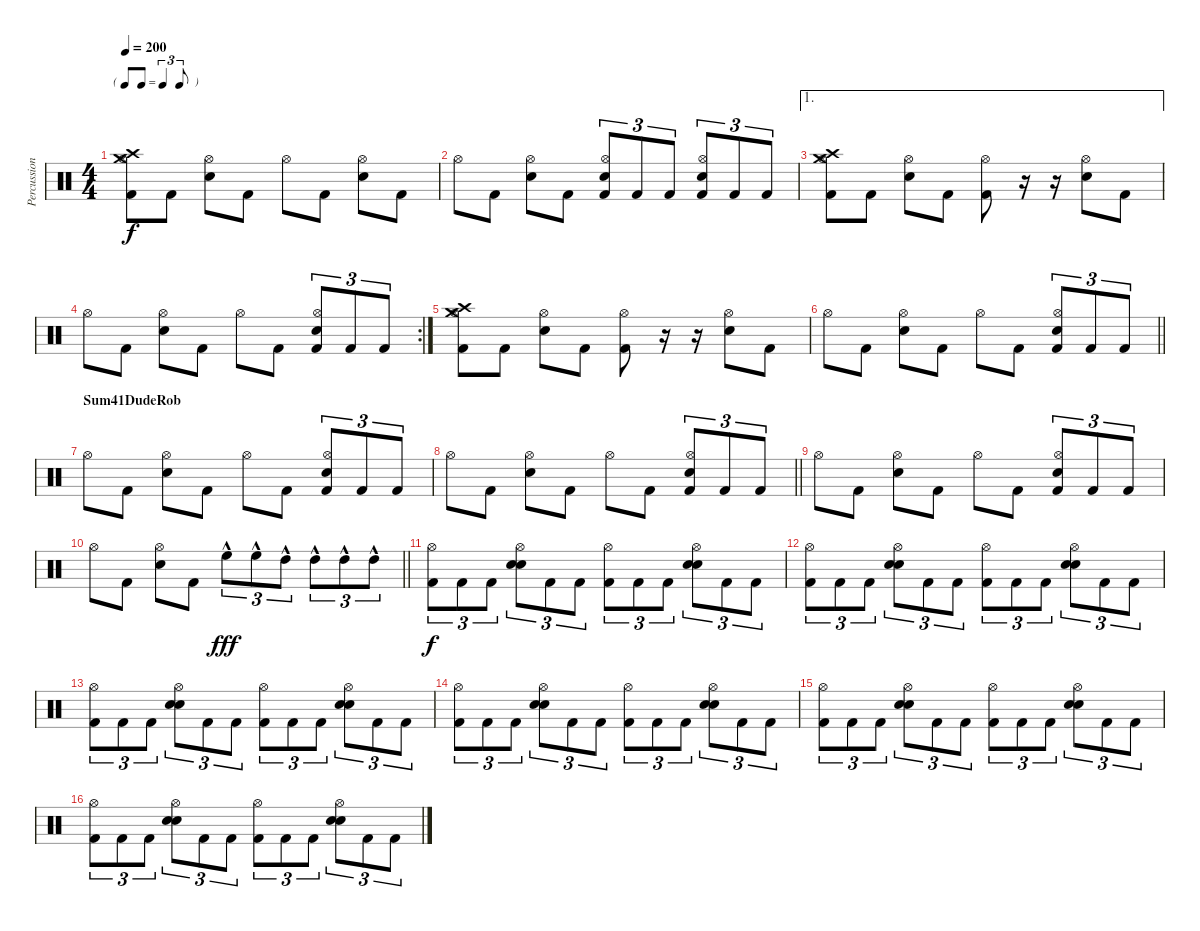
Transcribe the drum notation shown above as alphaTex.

\track ("Percussion" "Percussion") {instrument percussion}
\staff {score}
\articulation defaults
\ts (4 4)
\tf triplet8th
\tempo 200
\clef neutral
\ks c
("Kick (hit) 2" "Hi-Hat (open)" "Crash high (hit)" "Crash medium (hit)").8{dy f} "Kick (hit) 2".8 ("Electric Snare (hit)" "Hi-Hat (open)").8 "Kick (hit) 2".8 "Hi-Hat (open)".8 "Kick (hit) 2".8 ("Electric Snare (hit)" "Hi-Hat (open)").8 "Kick (hit) 2".8 |
"Hi-Hat (open)".8 "Kick (hit) 2".8 ("Electric Snare (hit)" "Hi-Hat (open)").8 "Kick (hit) 2".8 ("Kick (hit) 2" "Electric Snare (hit)" "Hi-Hat (open)").8{tu (3 2)} "Kick (hit) 2".8{tu (3 2)} "Kick (hit) 2".8{tu (3 2)} ("Kick (hit) 2" "Electric Snare (hit)" "Hi-Hat (open)").8{tu (3 2)} "Kick (hit) 2".8{tu (3 2)} "Kick (hit) 2".8{tu (3 2)} |
\ae 1
("Kick (hit) 2" "Crash high (hit)" "Hi-Hat (open)" "Crash medium (hit)").8 "Kick (hit) 2".8 ("Electric Snare (hit)" "Hi-Hat (open)").8 "Kick (hit) 2".8 ("Kick (hit) 2" "Hi-Hat (open)").8 r.16 r.16 ("Electric Snare (hit)" "Hi-Hat (open)").8 "Kick (hit) 2".8 |
\rc 2 "Hi-Hat (open)".8 "Kick (hit) 2".8
("Electric Snare (hit)" "Hi-Hat (open)").8 "Kick (hit) 2".8 "Hi-Hat (open)".8 "Kick (hit) 2".8 ("Kick (hit) 2" "Electric Snare (hit)" "Hi-Hat (open)").8{tu (3 2)} "Kick (hit) 2".8{tu (3 2)} "Kick (hit) 2".8{tu (3 2)} |
("Kick (hit) 2" "Crash high (hit)" "Hi-Hat (open)" "Crash medium (hit)").8 "Kick (hit) 2".8 ("Electric Snare (hit)" "Hi-Hat (open)").8 "Kick (hit) 2".8 ("Kick (hit) 2" "Hi-Hat (open)").8 r.16 r.16 ("Electric Snare (hit)" "Hi-Hat (open)").8 "Kick (hit) 2".8 |
\barLineRight lightlight "Hi-Hat (open)".8 "Kick (hit) 2".8
("Electric Snare (hit)" "Hi-Hat (open)").8 "Kick (hit) 2".8 "Hi-Hat (open)".8 "Kick (hit) 2".8 ("Kick (hit) 2" "Electric Snare (hit)" "Hi-Hat (open)").8{tu (3 2)} "Kick (hit) 2".8{tu (3 2)} "Kick (hit) 2".8{tu (3 2)} |
\section ("" "Sum41DudeRob")
"Hi-Hat (open)".8 "Kick (hit) 2".8 ("Electric Snare (hit)" "Hi-Hat (open)").8 "Kick (hit) 2".8 "Hi-Hat (open)".8 "Kick (hit) 2".8 ("Kick (hit) 2" "Electric Snare (hit)" "Hi-Hat (open)").8{tu (3 2)} "Kick (hit) 2".8{tu (3 2)} "Kick (hit) 2".8{tu (3 2)} |
\barLineRight lightlight "Hi-Hat (open)".8 "Kick (hit) 2".8
("Electric Snare (hit)" "Hi-Hat (open)").8 "Kick (hit) 2".8 "Hi-Hat (open)".8 "Kick (hit) 2".8 ("Kick (hit) 2" "Electric Snare (hit)" "Hi-Hat (open)").8{tu (3 2)} "Kick (hit) 2".8{tu (3 2)} "Kick (hit) 2".8{tu (3 2)} |
"Hi-Hat (open)".8 "Kick (hit) 2".8 ("Electric Snare (hit)" "Hi-Hat (open)").8 "Kick (hit) 2".8 "Hi-Hat (open)".8 "Kick (hit) 2".8 ("Kick (hit) 2" "Electric Snare (hit)" "Hi-Hat (open)").8{tu (3 2)} "Kick (hit) 2".8{tu (3 2)} "Kick (hit) 2".8{tu (3 2)} |
\barLineRight lightlight "Hi-Hat (open)".8 "Kick (hit) 2".8
("Electric Snare (hit)" "Hi-Hat (open)").8 "Kick (hit) 2".8 "High Floor Tom (hit)"{hac}.8{tu (3 2) dy fff} "High Floor Tom (hit)"{hac}.8{tu (3 2)} "High Tom (hit)"{hac}.8{tu (3 2)} "High Tom (hit)"{hac}.8{tu (3 2)} "High Tom (hit)"{hac}.8{tu (3 2)} "High Tom (hit)"{hac}.8{tu (3 2)} |
("Kick (hit) 2" "Hi-Hat (open)").8{tu (3 2) dy f} "Kick (hit) 2".8{tu (3 2)} "Kick (hit) 2".8{tu (3 2)} ("Snare (hit) 2" "Snare (hit) 2" "Hi-Hat (open)").8{tu (3 2)} "Kick (hit) 2".8{tu (3 2)} "Kick (hit) 2".8{tu (3 2)} ("Kick (hit) 2" "Hi-Hat (open)").8{tu (3 2)} "Kick (hit) 2".8{tu (3 2)} "Kick (hit) 2".8{tu (3 2)} ("Snare (hit) 2" "Snare (hit) 2" "Hi-Hat (open)").8{tu (3 2)} "Kick (hit) 2".8{tu (3 2)} "Kick (hit) 2".8{tu (3 2)} |
("Kick (hit) 2" "Hi-Hat (open)").8{tu (3 2)} "Kick (hit) 2".8{tu (3 2)} "Kick (hit) 2".8{tu (3 2)} ("Snare (hit) 2" "Snare (hit) 2" "Hi-Hat (open)").8{tu (3 2)} "Kick (hit) 2".8{tu (3 2)} "Kick (hit) 2".8{tu (3 2)} ("Kick (hit) 2" "Hi-Hat (open)").8{tu (3 2)} "Kick (hit) 2".8{tu (3 2)} "Kick (hit) 2".8{tu (3 2)} ("Snare (hit) 2" "Snare (hit) 2" "Hi-Hat (open)").8{tu (3 2)} "Kick (hit) 2".8{tu (3 2)} "Kick (hit) 2".8{tu (3 2)} |
("Kick (hit) 2" "Hi-Hat (open)").8{tu (3 2)} "Kick (hit) 2".8{tu (3 2)} "Kick (hit) 2".8{tu (3 2)} ("Snare (hit) 2" "Snare (hit) 2" "Hi-Hat (open)").8{tu (3 2)} "Kick (hit) 2".8{tu (3 2)} "Kick (hit) 2".8{tu (3 2)} ("Kick (hit) 2" "Hi-Hat (open)").8{tu (3 2)} "Kick (hit) 2".8{tu (3 2)} "Kick (hit) 2".8{tu (3 2)} ("Snare (hit) 2" "Snare (hit) 2" "Hi-Hat (open)").8{tu (3 2)} "Kick (hit) 2".8{tu (3 2)} "Kick (hit) 2".8{tu (3 2)} |
("Kick (hit) 2" "Hi-Hat (open)").8{tu (3 2)} "Kick (hit) 2".8{tu (3 2)} "Kick (hit) 2".8{tu (3 2)} ("Snare (hit) 2" "Snare (hit) 2" "Hi-Hat (open)").8{tu (3 2)} "Kick (hit) 2".8{tu (3 2)} "Kick (hit) 2".8{tu (3 2)} ("Kick (hit) 2" "Hi-Hat (open)").8{tu (3 2)} "Kick (hit) 2".8{tu (3 2)} "Kick (hit) 2".8{tu (3 2)} ("Snare (hit) 2" "Snare (hit) 2" "Hi-Hat (open)").8{tu (3 2)} "Kick (hit) 2".8{tu (3 2)} "Kick (hit) 2".8{tu (3 2)} |
("Kick (hit) 2" "Hi-Hat (open)").8{tu (3 2)} "Kick (hit) 2".8{tu (3 2)} "Kick (hit) 2".8{tu (3 2)} ("Snare (hit) 2" "Snare (hit) 2" "Hi-Hat (open)").8{tu (3 2)} "Kick (hit) 2".8{tu (3 2)} "Kick (hit) 2".8{tu (3 2)} ("Kick (hit) 2" "Hi-Hat (open)").8{tu (3 2)} "Kick (hit) 2".8{tu (3 2)} "Kick (hit) 2".8{tu (3 2)} ("Snare (hit) 2" "Snare (hit) 2" "Hi-Hat (open)").8{tu (3 2)} "Kick (hit) 2".8{tu (3 2)} "Kick (hit) 2".8{tu (3 2)} |
("Kick (hit) 2" "Hi-Hat (open)").8{tu (3 2)} "Kick (hit) 2".8{tu (3 2)} "Kick (hit) 2".8{tu (3 2)} ("Snare (hit) 2" "Snare (hit) 2" "Hi-Hat (open)").8{tu (3 2)} "Kick (hit) 2".8{tu (3 2)} "Kick (hit) 2".8{tu (3 2)} ("Kick (hit) 2" "Hi-Hat (open)").8{tu (3 2)} "Kick (hit) 2".8{tu (3 2)} "Kick (hit) 2".8{tu (3 2)} ("Snare (hit) 2" "Snare (hit) 2" "Hi-Hat (open)").8{tu (3 2)} "Kick (hit) 2".8{tu (3 2)} "Kick (hit) 2".8{tu (3 2)}
